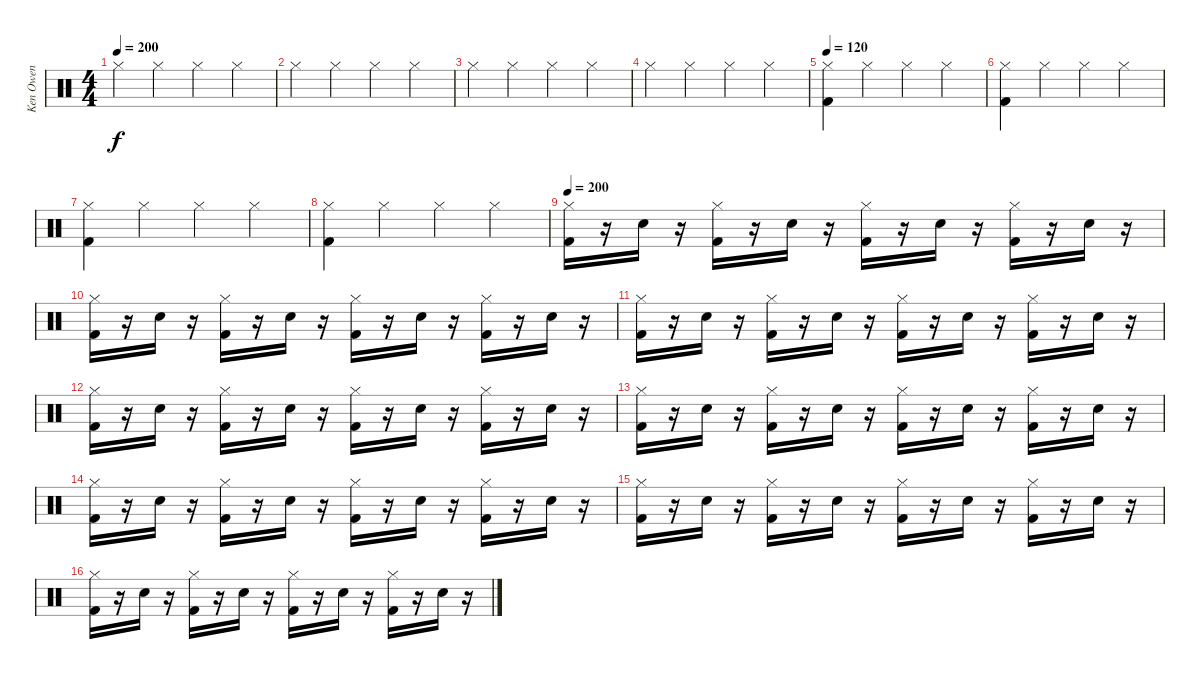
\track ("Ken Owen" "Ken Owen") {instrument percussion}
\staff {score}
\articulation defaults
\ts (4 4)
\tempo 200
\tempo 120
\tempo 200
\clef neutral
\ks c "Hi-Hat (closed)".4{dy f} "Hi-Hat (closed)".4 "Hi-Hat (closed)".4 "Hi-Hat (closed)".4
|
"Hi-Hat (closed)".4 "Hi-Hat (closed)".4 "Hi-Hat (closed)".4 "Hi-Hat (closed)".4 |
"Hi-Hat (closed)".4 "Hi-Hat (closed)".4 "Hi-Hat (closed)".4 "Hi-Hat (closed)".4 |
"Hi-Hat (closed)".4 "Hi-Hat (closed)".4 "Hi-Hat (closed)".4 "Hi-Hat (closed)".4 |
\tempo 120
("Hi-Hat (closed)" "Kick (hit) 2").4 "Hi-Hat (closed)".4 "Hi-Hat (closed)".4 "Hi-Hat (closed)".4 |
("Hi-Hat (closed)" "Kick (hit) 2").4 "Hi-Hat (closed)".4 "Hi-Hat (closed)".4 "Hi-Hat (closed)".4 |
("Hi-Hat (closed)" "Kick (hit) 2").4 "Hi-Hat (closed)".4 "Hi-Hat (closed)".4 "Hi-Hat (closed)".4 |
("Hi-Hat (closed)" "Kick (hit) 2").4 "Hi-Hat (closed)".4 "Hi-Hat (closed)".4 "Hi-Hat (closed)".4 |
\tempo 200
("Hi-Hat (closed)" "Kick (hit) 2").16 r.16 "Snare (hit) 2".16 r.16 ("Hi-Hat (closed)" "Kick (hit) 2").16 r.16 "Snare (hit) 2".16 r.16 ("Hi-Hat (closed)" "Kick (hit) 2").16 r.16 "Snare (hit) 2".16 r.16 ("Hi-Hat (closed)" "Kick (hit) 2").16 r.16 "Snare (hit) 2".16 r.16 |
("Hi-Hat (closed)" "Kick (hit) 2").16 r.16 "Snare (hit) 2".16 r.16 ("Hi-Hat (closed)" "Kick (hit) 2").16 r.16 "Snare (hit) 2".16 r.16 ("Hi-Hat (closed)" "Kick (hit) 2").16 r.16 "Snare (hit) 2".16 r.16 ("Hi-Hat (closed)" "Kick (hit) 2").16 r.16 "Snare (hit) 2".16 r.16 |
("Hi-Hat (closed)" "Kick (hit) 2").16 r.16 "Snare (hit) 2".16 r.16 ("Hi-Hat (closed)" "Kick (hit) 2").16 r.16 "Snare (hit) 2".16 r.16 ("Hi-Hat (closed)" "Kick (hit) 2").16 r.16 "Snare (hit) 2".16 r.16 ("Hi-Hat (closed)" "Kick (hit) 2").16 r.16 "Snare (hit) 2".16 r.16 |
("Hi-Hat (closed)" "Kick (hit) 2").16 r.16 "Snare (hit) 2".16 r.16 ("Hi-Hat (closed)" "Kick (hit) 2").16 r.16 "Snare (hit) 2".16 r.16 ("Hi-Hat (closed)" "Kick (hit) 2").16 r.16 "Snare (hit) 2".16 r.16 ("Hi-Hat (closed)" "Kick (hit) 2").16 r.16 "Snare (hit) 2".16 r.16 |
("Hi-Hat (closed)" "Kick (hit) 2").16 r.16 "Snare (hit) 2".16 r.16 ("Hi-Hat (closed)" "Kick (hit) 2").16 r.16 "Snare (hit) 2".16 r.16 ("Hi-Hat (closed)" "Kick (hit) 2").16 r.16 "Snare (hit) 2".16 r.16 ("Hi-Hat (closed)" "Kick (hit) 2").16 r.16 "Snare (hit) 2".16 r.16 |
("Hi-Hat (closed)" "Kick (hit) 2").16 r.16 "Snare (hit) 2".16 r.16 ("Hi-Hat (closed)" "Kick (hit) 2").16 r.16 "Snare (hit) 2".16 r.16 ("Hi-Hat (closed)" "Kick (hit) 2").16 r.16 "Snare (hit) 2".16 r.16 ("Hi-Hat (closed)" "Kick (hit) 2").16 r.16 "Snare (hit) 2".16 r.16 |
("Hi-Hat (closed)" "Kick (hit) 2").16 r.16 "Snare (hit) 2".16 r.16 ("Hi-Hat (closed)" "Kick (hit) 2").16 r.16 "Snare (hit) 2".16 r.16 ("Hi-Hat (closed)" "Kick (hit) 2").16 r.16 "Snare (hit) 2".16 r.16 ("Hi-Hat (closed)" "Kick (hit) 2").16 r.16 "Snare (hit) 2".16 r.16 |
("Hi-Hat (closed)" "Kick (hit) 2").16 r.16 "Snare (hit) 2".16 r.16 ("Hi-Hat (closed)" "Kick (hit) 2").16 r.16 "Snare (hit) 2".16 r.16 ("Hi-Hat (closed)" "Kick (hit) 2").16 r.16 "Snare (hit) 2".16 r.16 ("Hi-Hat (closed)" "Kick (hit) 2").16 r.16 "Snare (hit) 2".16 r.16
